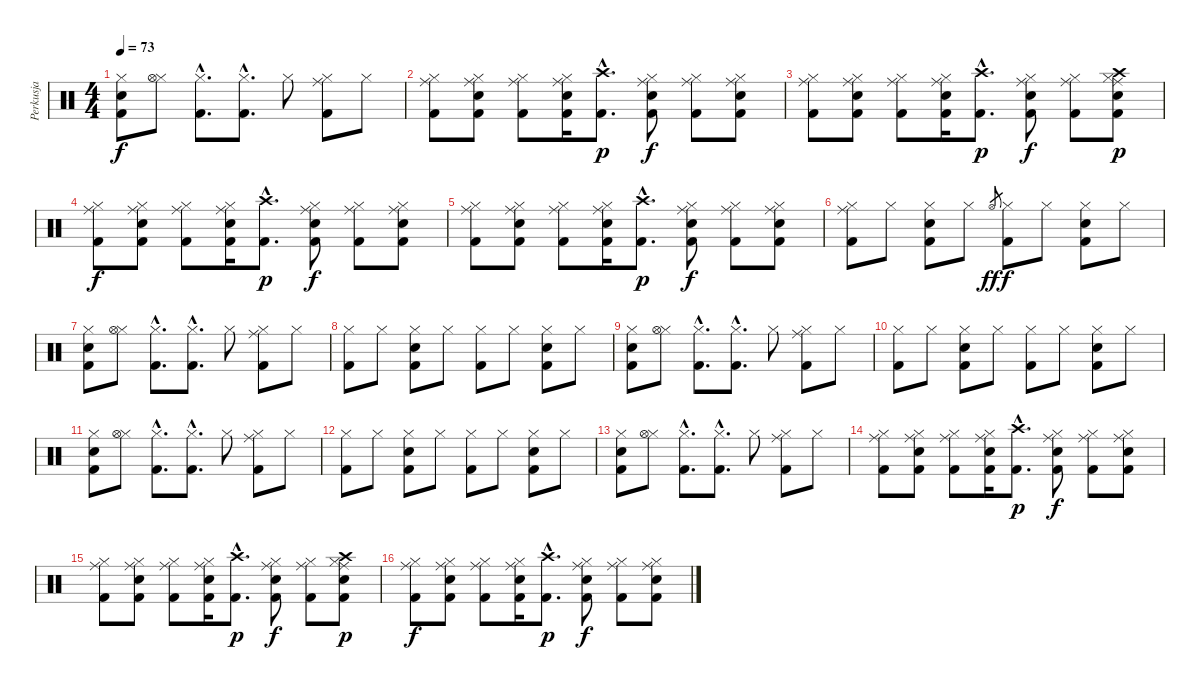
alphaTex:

\track ("Perkusja" "Perkusja") {instrument percussion}
\staff {score}
\articulation defaults
\ts (4 4)
\tempo 73
\clef neutral
\ks c
("Hi-Hat (closed)" "Snare (hit) 2" "Kick (hit) 2").8{dy f} ("Hi-Hat (closed)" "Hi-Hat (open)").8 ("Hi-Hat (closed)"{hac} "Kick (hit) 2"{hac}).8{d} ("Hi-Hat (closed)"{hac} "Kick (hit) 2"{hac}).8{d} "Hi-Hat (closed)".8 ("Hi-Hat (closed)" "Ride (middle)" "Kick (hit) 2").8 "Hi-Hat (closed)".8 |
("Hi-Hat (closed)" "Kick (hit) 2" "Ride (middle)").8 ("Hi-Hat (closed)" "Snare (hit) 2" "Kick (hit) 2" "Ride (middle)").8 ("Hi-Hat (closed)" "Kick (hit) 2" "Ride (middle)").8 ("Hi-Hat (closed)" "Snare (hit) 2" "Kick (hit) 2" "Ride (middle)").16 ("Crash high (hit)"{hac} "Kick (hit) 2"{hac}).8{d dy p} ("Hi-Hat (closed)" "Snare (hit) 2" "Kick (hit) 2" "Ride (middle)").8{dy f} ("Hi-Hat (closed)" "Kick (hit) 2" "Ride (middle)").8 ("Hi-Hat (closed)" "Snare (hit) 2" "Kick (hit) 2" "Ride (middle)").8 |
("Hi-Hat (closed)" "Kick (hit) 2" "Ride (middle)").8 ("Hi-Hat (closed)" "Snare (hit) 2" "Kick (hit) 2" "Ride (middle)").8 ("Hi-Hat (closed)" "Kick (hit) 2" "Ride (middle)").8 ("Hi-Hat (closed)" "Snare (hit) 2" "Kick (hit) 2" "Ride (middle)").16 ("Crash high (hit)"{hac} "Kick (hit) 2"{hac}).8{d dy p} ("Hi-Hat (closed)" "Snare (hit) 2" "Kick (hit) 2" "Ride (middle)").8{dy f} ("Hi-Hat (closed)" "Kick (hit) 2" "Ride (middle)").8 ("Hi-Hat (closed)" "Crash high (hit)" "Snare (hit) 2" "Kick (hit) 2" "Ride (middle)").8{dy p} |
("Hi-Hat (closed)" "Kick (hit) 2" "Ride (middle)").8{dy f} ("Hi-Hat (closed)" "Snare (hit) 2" "Kick (hit) 2" "Ride (middle)").8 ("Hi-Hat (closed)" "Kick (hit) 2" "Ride (middle)").8 ("Hi-Hat (closed)" "Snare (hit) 2" "Kick (hit) 2" "Ride (middle)").16 ("Crash high (hit)"{hac} "Kick (hit) 2"{hac}).8{d dy p} ("Hi-Hat (closed)" "Snare (hit) 2" "Kick (hit) 2" "Ride (middle)").8{dy f} ("Hi-Hat (closed)" "Kick (hit) 2" "Ride (middle)").8 ("Hi-Hat (closed)" "Snare (hit) 2" "Kick (hit) 2" "Ride (middle)").8 |
("Hi-Hat (closed)" "Kick (hit) 2" "Ride (middle)").8 ("Hi-Hat (closed)" "Snare (hit) 2" "Kick (hit) 2" "Ride (middle)").8 ("Hi-Hat (closed)" "Kick (hit) 2" "Ride (middle)").8 ("Hi-Hat (closed)" "Snare (hit) 2" "Kick (hit) 2" "Ride (middle)").16 ("Crash high (hit)"{hac} "Kick (hit) 2"{hac}).8{d dy p} ("Hi-Hat (closed)" "Snare (hit) 2" "Kick (hit) 2" "Ride (middle)").8{dy f} ("Hi-Hat (closed)" "Kick (hit) 2" "Ride (middle)").8 ("Hi-Hat (closed)" "Snare (hit) 2" "Kick (hit) 2" "Ride (middle)").8 |
("Hi-Hat (closed)" "Kick (hit) 2" "Ride (middle)").8 "Hi-Hat (closed)".8 ("Hi-Hat (closed)" "Snare (hit) 2" "Kick (hit) 2").8 "Hi-Hat (closed)".8 "Hi-Hat (open)".8{gr dy ff} ("Hi-Hat (closed)" "Kick (hit) 2").8{dy f} "Hi-Hat (closed)".8 ("Hi-Hat (closed)" "Snare (hit) 2" "Kick (hit) 2").8 "Hi-Hat (closed)".8 |
("Hi-Hat (closed)" "Snare (hit) 2" "Kick (hit) 2").8 ("Hi-Hat (closed)" "Hi-Hat (open)").8 ("Hi-Hat (closed)"{hac} "Kick (hit) 2"{hac}).8{d} ("Hi-Hat (closed)"{hac} "Kick (hit) 2"{hac}).8{d} "Hi-Hat (closed)".8 ("Hi-Hat (closed)" "Kick (hit) 2" "Ride (middle)").8 "Hi-Hat (closed)".8 |
("Hi-Hat (closed)" "Kick (hit) 2").8 "Hi-Hat (closed)".8 ("Hi-Hat (closed)" "Snare (hit) 2" "Kick (hit) 2").8 "Hi-Hat (closed)".8 ("Hi-Hat (closed)" "Kick (hit) 2").8 "Hi-Hat (closed)".8 ("Hi-Hat (closed)" "Snare (hit) 2" "Kick (hit) 2").8 "Hi-Hat (closed)".8 |
("Hi-Hat (closed)" "Snare (hit) 2" "Kick (hit) 2").8 ("Hi-Hat (closed)" "Hi-Hat (open)").8 ("Hi-Hat (closed)"{hac} "Kick (hit) 2"{hac}).8{d} ("Hi-Hat (closed)"{hac} "Kick (hit) 2"{hac}).8{d} "Hi-Hat (closed)".8 ("Hi-Hat (closed)" "Ride (middle)" "Kick (hit) 2").8 "Hi-Hat (closed)".8 |
("Hi-Hat (closed)" "Kick (hit) 2").8 "Hi-Hat (closed)".8 ("Hi-Hat (closed)" "Snare (hit) 2" "Kick (hit) 2").8 "Hi-Hat (closed)".8 ("Hi-Hat (closed)" "Kick (hit) 2").8 "Hi-Hat (closed)".8 ("Hi-Hat (closed)" "Snare (hit) 2" "Kick (hit) 2").8 "Hi-Hat (closed)".8 |
("Hi-Hat (closed)" "Snare (hit) 2" "Kick (hit) 2").8 ("Hi-Hat (closed)" "Hi-Hat (open)").8 ("Hi-Hat (closed)"{hac} "Kick (hit) 2"{hac}).8{d} ("Hi-Hat (closed)"{hac} "Kick (hit) 2"{hac}).8{d} "Hi-Hat (closed)".8 ("Hi-Hat (closed)" "Ride (middle)" "Kick (hit) 2").8 "Hi-Hat (closed)".8 |
("Hi-Hat (closed)" "Kick (hit) 2").8 "Hi-Hat (closed)".8 ("Hi-Hat (closed)" "Snare (hit) 2" "Kick (hit) 2").8 "Hi-Hat (closed)".8 ("Hi-Hat (closed)" "Kick (hit) 2").8 "Hi-Hat (closed)".8 ("Hi-Hat (closed)" "Snare (hit) 2" "Kick (hit) 2").8 "Hi-Hat (closed)".8 |
("Hi-Hat (closed)" "Snare (hit) 2" "Kick (hit) 2").8 ("Hi-Hat (closed)" "Hi-Hat (open)").8 ("Hi-Hat (closed)"{hac} "Kick (hit) 2"{hac}).8{d} ("Hi-Hat (closed)"{hac} "Kick (hit) 2"{hac}).8{d} "Hi-Hat (closed)".8 ("Hi-Hat (closed)" "Ride (middle)" "Kick (hit) 2").8 "Hi-Hat (closed)".8 |
("Hi-Hat (closed)" "Kick (hit) 2" "Ride (middle)").8 ("Hi-Hat (closed)" "Snare (hit) 2" "Kick (hit) 2" "Ride (middle)").8 ("Hi-Hat (closed)" "Kick (hit) 2" "Ride (middle)").8 ("Hi-Hat (closed)" "Snare (hit) 2" "Kick (hit) 2" "Ride (middle)").16 ("Crash high (hit)"{hac} "Kick (hit) 2"{hac}).8{d dy p} ("Hi-Hat (closed)" "Snare (hit) 2" "Kick (hit) 2" "Ride (middle)").8{dy f} ("Hi-Hat (closed)" "Kick (hit) 2" "Ride (middle)").8 ("Hi-Hat (closed)" "Snare (hit) 2" "Kick (hit) 2" "Ride (middle)").8 |
("Hi-Hat (closed)" "Kick (hit) 2" "Ride (middle)").8 ("Hi-Hat (closed)" "Snare (hit) 2" "Kick (hit) 2" "Ride (middle)").8 ("Hi-Hat (closed)" "Kick (hit) 2" "Ride (middle)").8 ("Hi-Hat (closed)" "Snare (hit) 2" "Kick (hit) 2" "Ride (middle)").16 ("Crash high (hit)"{hac} "Kick (hit) 2"{hac}).8{d dy p} ("Hi-Hat (closed)" "Snare (hit) 2" "Kick (hit) 2" "Ride (middle)").8{dy f} ("Hi-Hat (closed)" "Kick (hit) 2" "Ride (middle)").8 ("Hi-Hat (closed)" "Crash high (hit)" "Snare (hit) 2" "Kick (hit) 2" "Ride (middle)").8{dy p} |
("Hi-Hat (closed)" "Kick (hit) 2" "Ride (middle)").8{dy f} ("Hi-Hat (closed)" "Snare (hit) 2" "Kick (hit) 2" "Ride (middle)").8 ("Hi-Hat (closed)" "Kick (hit) 2" "Ride (middle)").8 ("Hi-Hat (closed)" "Snare (hit) 2" "Kick (hit) 2" "Ride (middle)").16 ("Crash high (hit)"{hac} "Kick (hit) 2"{hac}).8{d dy p} ("Hi-Hat (closed)" "Snare (hit) 2" "Kick (hit) 2" "Ride (middle)").8{dy f} ("Hi-Hat (closed)" "Kick (hit) 2" "Ride (middle)").8 ("Hi-Hat (closed)" "Snare (hit) 2" "Kick (hit) 2" "Ride (middle)").8
